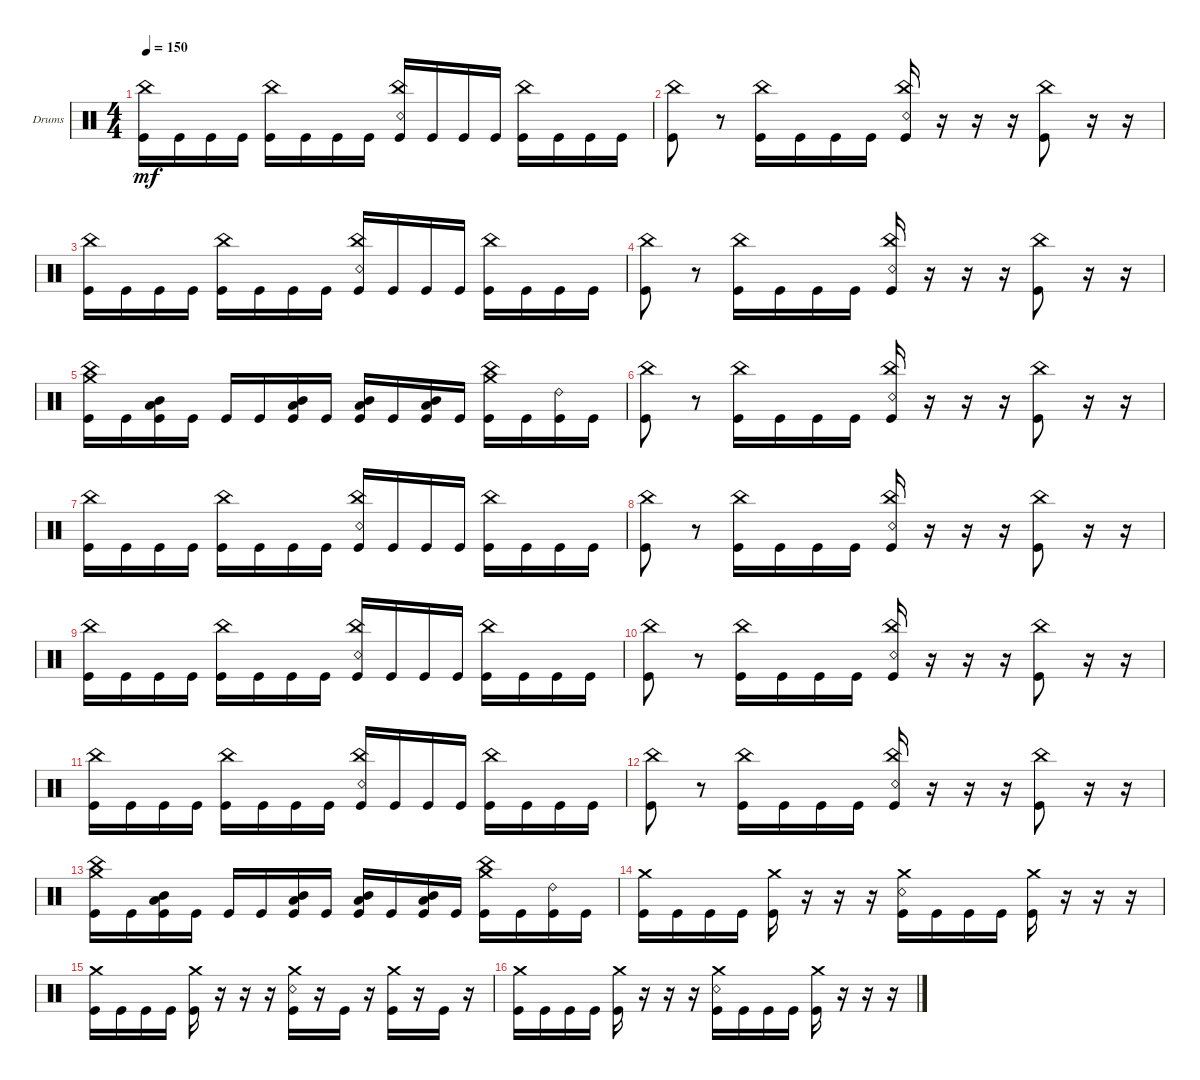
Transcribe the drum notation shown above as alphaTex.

\bracketExtendMode groupsimilarinstruments
\firstSystemTrackNameOrientation horizontal
\otherSystemsTrackNameOrientation horizontal
\track ("Drumkit" "Drums") {instrument percussion}
\staff {score}
\articulation defaults
\ts (4 4)
\tempo 150
\clef neutral
\ks c
("Kick (hit)" "China (hit)").16{dy mf} "Kick (hit)".16 "Kick (hit)".16 "Kick (hit)".16 ("Kick (hit)" "China (hit)").16 "Kick (hit)".16 "Kick (hit)".16 "Kick (hit)".16 ("Kick (hit)" "China (hit)" "Snare (rim shot)").16 "Kick (hit)".16 "Kick (hit)".16 "Kick (hit)".16 ("Kick (hit)" "China (hit)").16 "Kick (hit)".16 "Kick (hit)".16 "Kick (hit)".16 |
("Kick (hit)" "China (hit)").8 r.8 ("Kick (hit)" "China (hit)").16 "Kick (hit)".16 "Kick (hit)".16 "Kick (hit)".16 ("Kick (hit)" "China (hit)" "Snare (rim shot)").16 r.16 r.16 r.16 ("Kick (hit)" "China (hit)").8 r.16 r.16 |
("Kick (hit)" "China (hit)").16 "Kick (hit)".16 "Kick (hit)".16 "Kick (hit)".16 ("Kick (hit)" "China (hit)").16 "Kick (hit)".16 "Kick (hit)".16 "Kick (hit)".16 ("Kick (hit)" "China (hit)" "Snare (rim shot)").16 "Kick (hit)".16 "Kick (hit)".16 "Kick (hit)".16 ("Kick (hit)" "China (hit)").16 "Kick (hit)".16 "Kick (hit)".16 "Kick (hit)".16 |
("Kick (hit)" "China (hit)").8 r.8 ("Kick (hit)" "China (hit)").16 "Kick (hit)".16 "Kick (hit)".16 "Kick (hit)".16 ("Kick (hit)" "China (hit)" "Snare (rim shot)").16 r.16 r.16 r.16 ("Kick (hit)" "China (hit)").8 r.16 r.16 |
("Kick (hit)" "China (hit)" "Crash medium (hit)").16 "Kick (hit)".16 ("Kick (hit)" "Mid Tom (hit)" "Low Tom (hit)").16 "Kick (hit)".16 "Kick (hit)".16 "Kick (hit)".16 ("Kick (hit)" "Mid Tom (hit)" "Low Tom (hit)").16 "Kick (hit)".16 ("Kick (hit)" "Mid Tom (hit)" "Low Tom (hit)").16 "Kick (hit)".16 ("Kick (hit)" "Mid Tom (hit)" "Low Tom (hit)").16 "Kick (hit)".16 ("Kick (hit)" "China (hit)" "Crash medium (hit)").16 "Kick (hit)".16 ("Kick (hit)" "Ride (bell) 2").16 "Kick (hit)".16 |
("Kick (hit)" "China (hit)").8 r.8 ("Kick (hit)" "China (hit)").16 "Kick (hit)".16 "Kick (hit)".16 "Kick (hit)".16 ("Kick (hit)" "China (hit)" "Snare (rim shot)").16 r.16 r.16 r.16 ("Kick (hit)" "China (hit)").8 r.16 r.16 |
("Kick (hit)" "China (hit)").16 "Kick (hit)".16 "Kick (hit)".16 "Kick (hit)".16 ("Kick (hit)" "China (hit)").16 "Kick (hit)".16 "Kick (hit)".16 "Kick (hit)".16 ("Kick (hit)" "China (hit)" "Snare (rim shot)").16 "Kick (hit)".16 "Kick (hit)".16 "Kick (hit)".16 ("Kick (hit)" "China (hit)").16 "Kick (hit)".16 "Kick (hit)".16 "Kick (hit)".16 |
("Kick (hit)" "China (hit)").8 r.8 ("Kick (hit)" "China (hit)").16 "Kick (hit)".16 "Kick (hit)".16 "Kick (hit)".16 ("Kick (hit)" "China (hit)" "Snare (rim shot)").16 r.16 r.16 r.16 ("Kick (hit)" "China (hit)").8 r.16 r.16 |
("Kick (hit)" "China (hit)").16 "Kick (hit)".16 "Kick (hit)".16 "Kick (hit)".16 ("Kick (hit)" "China (hit)").16 "Kick (hit)".16 "Kick (hit)".16 "Kick (hit)".16 ("Kick (hit)" "China (hit)" "Snare (rim shot)").16 "Kick (hit)".16 "Kick (hit)".16 "Kick (hit)".16 ("Kick (hit)" "China (hit)").16 "Kick (hit)".16 "Kick (hit)".16 "Kick (hit)".16 |
("Kick (hit)" "China (hit)").8 r.8 ("Kick (hit)" "China (hit)").16 "Kick (hit)".16 "Kick (hit)".16 "Kick (hit)".16 ("Kick (hit)" "China (hit)" "Snare (rim shot)").16 r.16 r.16 r.16 ("Kick (hit)" "China (hit)").8 r.16 r.16 |
("Kick (hit)" "China (hit)").16 "Kick (hit)".16 "Kick (hit)".16 "Kick (hit)".16 ("Kick (hit)" "China (hit)").16 "Kick (hit)".16 "Kick (hit)".16 "Kick (hit)".16 ("Kick (hit)" "China (hit)" "Snare (rim shot)").16 "Kick (hit)".16 "Kick (hit)".16 "Kick (hit)".16 ("Kick (hit)" "China (hit)").16 "Kick (hit)".16 "Kick (hit)".16 "Kick (hit)".16 |
("Kick (hit)" "China (hit)").8 r.8 ("Kick (hit)" "China (hit)").16 "Kick (hit)".16 "Kick (hit)".16 "Kick (hit)".16 ("Kick (hit)" "China (hit)" "Snare (rim shot)").16 r.16 r.16 r.16 ("Kick (hit)" "China (hit)").8 r.16 r.16 |
("Kick (hit)" "China (hit)" "Crash medium (hit)").16 "Kick (hit)".16 ("Kick (hit)" "Mid Tom (hit)" "Low Tom (hit)").16 "Kick (hit)".16 "Kick (hit)".16 "Kick (hit)".16 ("Kick (hit)" "Mid Tom (hit)" "Low Tom (hit)").16 "Kick (hit)".16 ("Kick (hit)" "Mid Tom (hit)" "Low Tom (hit)").16 "Kick (hit)".16 ("Kick (hit)" "Mid Tom (hit)" "Low Tom (hit)").16 "Kick (hit)".16 ("Kick (hit)" "China (hit)" "Crash medium (hit)").16 "Kick (hit)".16 ("Kick (hit)" "Ride (bell) 2").16 "Kick (hit)".16 |
("Crash medium (hit)" "Kick (hit)").16 "Kick (hit)".16 "Kick (hit)".16 "Kick (hit)".16 ("Kick (hit)" "Crash medium (hit)").16 r.16 r.16 r.16 ("Kick (hit)" "Snare (rim shot)" "Crash medium (hit)").16 "Kick (hit)".16 "Kick (hit)".16 "Kick (hit)".16 ("Kick (hit)" "Crash medium (hit)").16 r.16 r.16 r.16 |
("Crash medium (hit)" "Kick (hit)").16 "Kick (hit)".16 "Kick (hit)".16 "Kick (hit)".16 ("Kick (hit)" "Crash medium (hit)").16 r.16 r.16 r.16 ("Kick (hit)" "Snare (rim shot)" "Crash medium (hit)").16 r.16 "Kick (hit)".16 r.16 ("Kick (hit)" "Crash medium (hit)").16 r.16 "Kick (hit)".16 r.16 |
("Crash medium (hit)" "Kick (hit)").16 "Kick (hit)".16 "Kick (hit)".16 "Kick (hit)".16 ("Kick (hit)" "Crash medium (hit)").16 r.16 r.16 r.16 ("Kick (hit)" "Snare (rim shot)" "Crash medium (hit)").16 "Kick (hit)".16 "Kick (hit)".16 "Kick (hit)".16 ("Kick (hit)" "Crash medium (hit)").16 r.16 r.16 r.16
